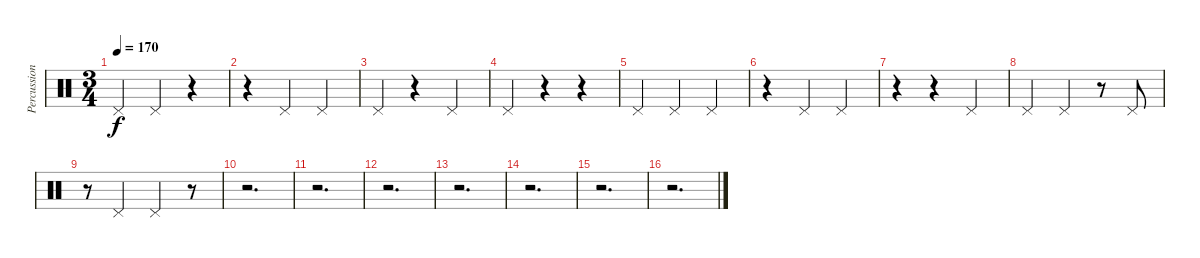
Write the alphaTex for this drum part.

\track ("Percussion" "Percussion") {instrument percussion}
\staff {score}
\articulation defaults
\ts (3 4)
\tempo 170
\clef neutral
\ks c "Pedal Hi-Hat (hit)".4{dy f} "Pedal Hi-Hat (hit)".4
r.4 |
r.4 "Pedal Hi-Hat (hit)".4 "Pedal Hi-Hat (hit)".4 |
"Pedal Hi-Hat (hit)".4 r.4 "Pedal Hi-Hat (hit)".4 |
"Pedal Hi-Hat (hit)".4 r.4 r.4 |
"Pedal Hi-Hat (hit)".4 "Pedal Hi-Hat (hit)".4 "Pedal Hi-Hat (hit)".4 |
r.4 "Pedal Hi-Hat (hit)".4 "Pedal Hi-Hat (hit)".4 |
r.4 r.4 "Pedal Hi-Hat (hit)".4 |
"Pedal Hi-Hat (hit)".4 "Pedal Hi-Hat (hit)".4 r.8 "Pedal Hi-Hat (hit)".8 |
r.8 "Pedal Hi-Hat (hit)".4 "Pedal Hi-Hat (hit)".4 r.8 |
r.2{d} |
r.2{d} |
r.2{d} |
r.2{d} |
r.2{d} |
r.2{d} |
r.2{d}
